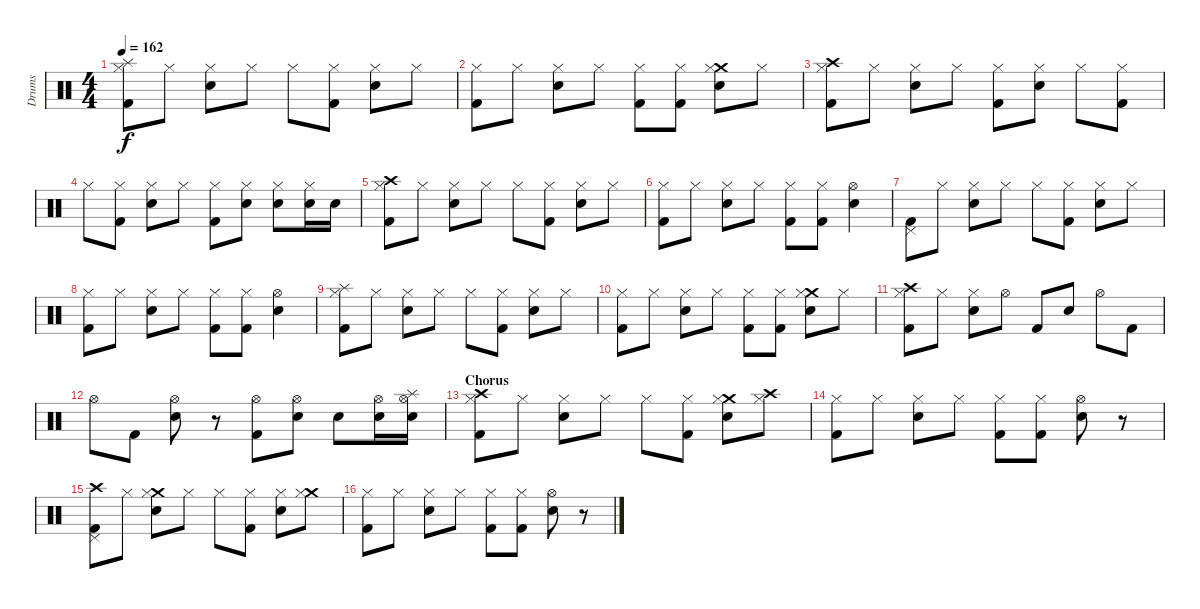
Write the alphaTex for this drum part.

\track ("Drums" "Drums") {instrument percussion}
\staff {score}
\articulation defaults
\ts (4 4)
\tempo 162
\clef neutral
\ks c
("Hi-Hat (closed)" "Splash (hit)" "Kick (hit) 2").8{dy f} "Hi-Hat (closed)".8 ("Hi-Hat (closed)" "Electric Snare (hit)").8 "Hi-Hat (closed)".8 "Hi-Hat (closed)".8 ("Hi-Hat (closed)" "Kick (hit) 2").8 ("Hi-Hat (closed)" "Electric Snare (hit)").8 "Hi-Hat (closed)".8 |
("Hi-Hat (closed)" "Kick (hit) 2").8 "Hi-Hat (closed)".8 ("Hi-Hat (closed)" "Electric Snare (hit)").8 "Hi-Hat (closed)".8 ("Hi-Hat (closed)" "Kick (hit) 2").8 ("Hi-Hat (closed)" "Kick (hit) 2").8 ("Crash medium (hit)" "Hi-Hat (closed)" "Electric Snare (hit)").8 "Hi-Hat (closed)".8 |
("Crash high (hit)" "Hi-Hat (closed)" "Kick (hit) 2").8 "Hi-Hat (closed)".8 ("Hi-Hat (closed)" "Electric Snare (hit)").8 "Hi-Hat (closed)".8 ("Hi-Hat (closed)" "Kick (hit) 2").8 ("Hi-Hat (closed)" "Electric Snare (hit)").8 "Hi-Hat (closed)".8 ("Hi-Hat (closed)" "Kick (hit) 2").8 |
"Hi-Hat (closed)".8 ("Hi-Hat (closed)" "Kick (hit) 2").8 ("Hi-Hat (closed)" "Electric Snare (hit)").8 "Hi-Hat (closed)".8 ("Hi-Hat (closed)" "Kick (hit) 2").8 ("Hi-Hat (closed)" "Electric Snare (hit)").8 ("Hi-Hat (closed)" "Electric Snare (hit)").8 ("Hi-Hat (closed)" "Electric Snare (hit)").16 "Electric Snare (hit)".16 |
("Crash high (hit)" "Hi-Hat (closed)" "Kick (hit) 2").8 "Hi-Hat (closed)".8 ("Hi-Hat (closed)" "Electric Snare (hit)").8 "Hi-Hat (closed)".8 "Hi-Hat (closed)".8 ("Hi-Hat (closed)" "Kick (hit) 2").8 ("Hi-Hat (closed)" "Electric Snare (hit)").8 "Hi-Hat (closed)".8 |
("Hi-Hat (closed)" "Kick (hit) 2").8 "Hi-Hat (closed)".8 ("Hi-Hat (closed)" "Electric Snare (hit)").8 "Hi-Hat (closed)".8 ("Hi-Hat (closed)" "Kick (hit) 2").8 ("Hi-Hat (closed)" "Kick (hit) 2").8 ("Hi-Hat (open)" "Electric Snare (hit)").4 |
("Pedal Hi-Hat (hit)" "Kick (hit) 2").8 "Hi-Hat (closed)".8 ("Hi-Hat (closed)" "Electric Snare (hit)").8 "Hi-Hat (closed)".8 "Hi-Hat (closed)".8 ("Hi-Hat (closed)" "Kick (hit) 2").8 ("Hi-Hat (closed)" "Electric Snare (hit)").8 "Hi-Hat (closed)".8 |
("Hi-Hat (closed)" "Kick (hit) 2").8 "Hi-Hat (closed)".8 ("Hi-Hat (closed)" "Electric Snare (hit)").8 "Hi-Hat (closed)".8 ("Hi-Hat (closed)" "Kick (hit) 2").8 ("Hi-Hat (closed)" "Kick (hit) 2").8 ("Hi-Hat (open)" "Electric Snare (hit)").4 |
("Hi-Hat (closed)" "Splash (hit)" "Kick (hit) 2").8 "Hi-Hat (closed)".8 ("Hi-Hat (closed)" "Electric Snare (hit)").8 "Hi-Hat (closed)".8 "Hi-Hat (closed)".8 ("Hi-Hat (closed)" "Kick (hit) 2").8 ("Hi-Hat (closed)" "Electric Snare (hit)").8 "Hi-Hat (closed)".8 |
("Hi-Hat (closed)" "Kick (hit) 2").8 "Hi-Hat (closed)".8 ("Hi-Hat (closed)" "Electric Snare (hit)").8 "Hi-Hat (closed)".8 ("Hi-Hat (closed)" "Kick (hit) 2").8 ("Hi-Hat (closed)" "Kick (hit) 2").8 ("Crash medium (hit)" "Hi-Hat (closed)" "Electric Snare (hit)").8 "Hi-Hat (closed)".8 |
("Crash high (hit)" "Hi-Hat (closed)" "Kick (hit) 2").8 "Hi-Hat (closed)".8 ("Hi-Hat (closed)" "Electric Snare (hit)").8 "Hi-Hat (open)".8 "Kick (hit) 2".8 "Electric Snare (hit)".8 "Hi-Hat (open)".8 "Kick (hit) 2".8 |
"Hi-Hat (open)".8 "Kick (hit) 2".8 ("Hi-Hat (open)" "Electric Snare (hit)").8 r.8 ("Hi-Hat (open)" "Kick (hit) 2").8 ("Hi-Hat (open)" "Electric Snare (hit)").8 "Electric Snare (hit)".8 ("Hi-Hat (open)" "Electric Snare (hit)").16 ("Hi-Hat (open)" "Splash (hit)" "Electric Snare (hit)").16 |
\section ("" "Chorus")
("Crash high (hit)" "Hi-Hat (closed)" "Kick (hit) 2").8 "Hi-Hat (closed)".8 ("Hi-Hat (closed)" "Electric Snare (hit)").8 "Hi-Hat (closed)".8 "Hi-Hat (closed)".8 ("Hi-Hat (closed)" "Kick (hit) 2").8 ("Crash medium (hit)" "Hi-Hat (closed)" "Electric Snare (hit)").8 ("Crash high (hit)" "Hi-Hat (closed)").8 |
("Hi-Hat (closed)" "Kick (hit) 2").8 "Hi-Hat (closed)".8 ("Hi-Hat (closed)" "Electric Snare (hit)").8 "Hi-Hat (closed)".8 ("Hi-Hat (closed)" "Kick (hit) 2").8 ("Hi-Hat (closed)" "Kick (hit) 2").8 ("Hi-Hat (open)" "Electric Snare (hit)").8 r.8 |
("Crash high (hit)" "Pedal Hi-Hat (hit)" "Kick (hit) 2").8 "Hi-Hat (closed)".8 ("Crash medium (hit)" "Hi-Hat (closed)" "Electric Snare (hit)").8 "Hi-Hat (closed)".8 "Hi-Hat (closed)".8 ("Hi-Hat (closed)" "Kick (hit) 2").8 ("Hi-Hat (closed)" "Electric Snare (hit)").8 ("Crash medium (hit)" "Hi-Hat (closed)").8 |
("Hi-Hat (closed)" "Kick (hit) 2").8 "Hi-Hat (closed)".8 ("Hi-Hat (closed)" "Electric Snare (hit)").8 "Hi-Hat (closed)".8 ("Hi-Hat (closed)" "Kick (hit) 2").8 ("Hi-Hat (closed)" "Kick (hit) 2").8 ("Hi-Hat (open)" "Electric Snare (hit)").8 r.8
